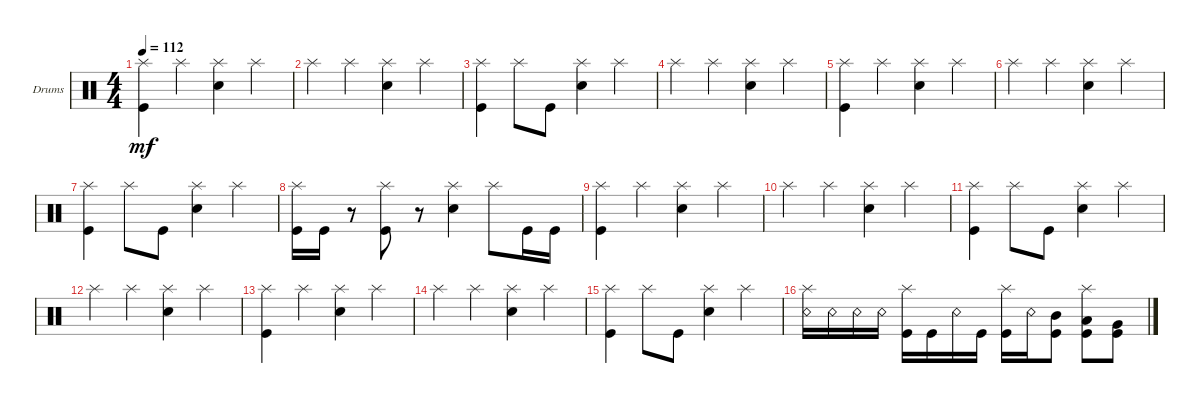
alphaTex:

\defaultSystemsLayout 4
\bracketExtendMode groupsimilarinstruments
\firstSystemTrackNameOrientation horizontal
\otherSystemsTrackNameOrientation horizontal
\track ("Drumkit" "Drums") {instrument percussion}
\staff {score}
\articulation defaults
\ts (4 4)
\tempo 112
\clef neutral
\ks c
("Splash (hit)" "Kick (hit)").4{dy mf} "Splash (hit)".4 ("Splash (hit)" "Snare (hit) 2").4 "Splash (hit)".4 |
"Splash (hit)".4 "Splash (hit)".4 ("Splash (hit)" "Snare (hit) 2").4 "Splash (hit)".4 |
("Splash (hit)" "Kick (hit)").4 "Splash (hit)".8 "Kick (hit)".8 ("Splash (hit)" "Snare (hit) 2").4 "Splash (hit)".4 |
"Splash (hit)".4 "Splash (hit)".4 ("Splash (hit)" "Snare (hit) 2").4 "Splash (hit)".4 |
("Splash (hit)" "Kick (hit)").4 "Splash (hit)".4 ("Splash (hit)" "Snare (hit) 2").4 "Splash (hit)".4 |
"Splash (hit)".4 "Splash (hit)".4 ("Splash (hit)" "Snare (hit) 2").4 "Splash (hit)".4 |
("Splash (hit)" "Kick (hit)").4 "Splash (hit)".8 "Kick (hit)".8 ("Splash (hit)" "Snare (hit) 2").4 "Splash (hit)".4 |
("Splash (hit)" "Kick (hit)").16 "Kick (hit)".16 r.8 ("Kick (hit)" "Splash (hit)").8 r.8 ("Splash (hit)" "Snare (hit) 2").4 "Splash (hit)".8 "Kick (hit)".16 "Kick (hit)".16 |
("Splash (hit)" "Kick (hit)").4 "Splash (hit)".4 ("Splash (hit)" "Snare (hit) 2").4 "Splash (hit)".4 |
"Splash (hit)".4 "Splash (hit)".4 ("Splash (hit)" "Snare (hit) 2").4 "Splash (hit)".4 |
("Splash (hit)" "Kick (hit)").4 "Splash (hit)".8 "Kick (hit)".8 ("Splash (hit)" "Snare (hit) 2").4 "Splash (hit)".4 |
"Splash (hit)".4 "Splash (hit)".4 ("Splash (hit)" "Snare (hit) 2").4 "Splash (hit)".4 |
("Splash (hit)" "Kick (hit)").4 "Splash (hit)".4 ("Splash (hit)" "Snare (hit) 2").4 "Splash (hit)".4 |
"Splash (hit)".4 "Splash (hit)".4 ("Splash (hit)" "Snare (hit) 2").4 "Splash (hit)".4 |
("Splash (hit)" "Kick (hit)").4 "Splash (hit)".8 "Kick (hit)".8 ("Splash (hit)" "Snare (hit) 2").4 "Splash (hit)".4 |
("Snare (rim shot)" "Splash (hit)").16 "Snare (rim shot)".16 "Snare (rim shot)".16 "Snare (rim shot)".16 ("Kick (hit)" "Splash (hit)").16 "Kick (hit)".16 "Snare (rim shot)".16 "Kick (hit)".16 ("Kick (hit)" "Splash (hit)").16 "Snare (rim shot)".16 ("Kick (hit)" "Mid Tom (hit)").8 ("Kick (hit)" "Low Tom (hit)" "Splash (hit)").8 ("Kick (hit)" "Very Low Tom (hit)").8
